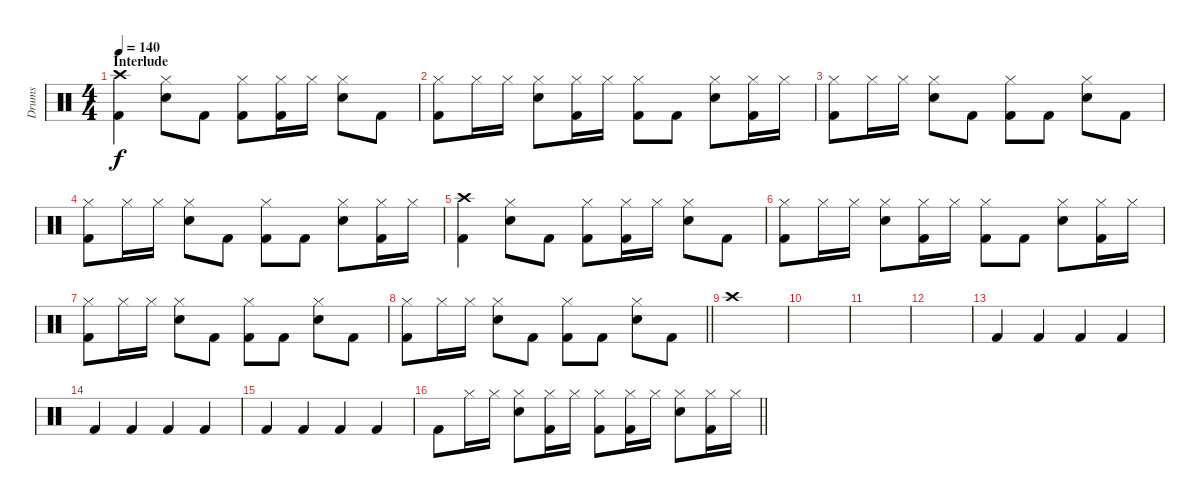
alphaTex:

\track ("Drums" "Drums") {instrument percussion}
\staff {score}
\articulation defaults
\ts (4 4)
\section ("" "Interlude")
\tempo 140
\clef neutral
\ks c
("Crash high (hit)" "Kick (hit) 2").4{dy f} ("Hi-Hat (closed)" "Electric Snare (hit)").8 "Kick (hit) 2".8 ("Hi-Hat (closed)" "Kick (hit) 2").8 ("Hi-Hat (closed)" "Kick (hit) 2").16 "Hi-Hat (closed)".16 ("Hi-Hat (closed)" "Electric Snare (hit)").8 "Kick (hit) 2".8 |
("Hi-Hat (closed)" "Kick (hit) 2").8 "Hi-Hat (closed)".16 "Hi-Hat (closed)".16 ("Hi-Hat (closed)" "Electric Snare (hit)").8 ("Hi-Hat (closed)" "Kick (hit) 2").16 "Hi-Hat (closed)".16 ("Hi-Hat (closed)" "Kick (hit) 2").8 "Kick (hit) 2".8 ("Hi-Hat (closed)" "Electric Snare (hit)").8 ("Hi-Hat (closed)" "Kick (hit) 2").16 "Hi-Hat (closed)".16 |
("Hi-Hat (closed)" "Kick (hit) 2").8 "Hi-Hat (closed)".16 "Hi-Hat (closed)".16 ("Hi-Hat (closed)" "Electric Snare (hit)").8 "Kick (hit) 2".8 ("Hi-Hat (closed)" "Kick (hit) 2").8 "Kick (hit) 2".8 ("Hi-Hat (closed)" "Electric Snare (hit)").8 "Kick (hit) 2".8 |
("Hi-Hat (closed)" "Kick (hit) 2").8 "Hi-Hat (closed)".16 "Hi-Hat (closed)".16 ("Hi-Hat (closed)" "Electric Snare (hit)").8 "Kick (hit) 2".8 ("Hi-Hat (closed)" "Kick (hit) 2").8 "Kick (hit) 2".8 ("Hi-Hat (closed)" "Electric Snare (hit)").8 ("Hi-Hat (closed)" "Kick (hit) 2").16 "Hi-Hat (closed)".16 |
("Crash high (hit)" "Kick (hit) 2").4 ("Hi-Hat (closed)" "Electric Snare (hit)").8 "Kick (hit) 2".8 ("Hi-Hat (closed)" "Kick (hit) 2").8 ("Hi-Hat (closed)" "Kick (hit) 2").16 "Hi-Hat (closed)".16 ("Hi-Hat (closed)" "Electric Snare (hit)").8 "Kick (hit) 2".8 |
("Hi-Hat (closed)" "Kick (hit) 2").8 "Hi-Hat (closed)".16 "Hi-Hat (closed)".16 ("Hi-Hat (closed)" "Electric Snare (hit)").8 ("Hi-Hat (closed)" "Kick (hit) 2").16 "Hi-Hat (closed)".16 ("Hi-Hat (closed)" "Kick (hit) 2").8 "Kick (hit) 2".8 ("Hi-Hat (closed)" "Electric Snare (hit)").8 ("Hi-Hat (closed)" "Kick (hit) 2").16 "Hi-Hat (closed)".16 |
("Hi-Hat (closed)" "Kick (hit) 2").8 "Hi-Hat (closed)".16 "Hi-Hat (closed)".16 ("Hi-Hat (closed)" "Electric Snare (hit)").8 "Kick (hit) 2".8 ("Hi-Hat (closed)" "Kick (hit) 2").8 "Kick (hit) 2".8 ("Hi-Hat (closed)" "Electric Snare (hit)").8 "Kick (hit) 2".8 |
\barLineRight lightlight
("Hi-Hat (closed)" "Kick (hit) 2").8 "Hi-Hat (closed)".16 "Hi-Hat (closed)".16 ("Hi-Hat (closed)" "Electric Snare (hit)").8 "Kick (hit) 2".8 ("Hi-Hat (closed)" "Kick (hit) 2").8 "Kick (hit) 2".8 ("Hi-Hat (closed)" "Electric Snare (hit)").8 "Kick (hit) 2".8 |
"Crash high (hit)".1 |
|
|
|
"Kick (hit) 2".4 "Kick (hit) 2".4 "Kick (hit) 2".4 "Kick (hit) 2".4 |
"Kick (hit) 2".4 "Kick (hit) 2".4 "Kick (hit) 2".4 "Kick (hit) 2".4 |
"Kick (hit) 2".4 "Kick (hit) 2".4 "Kick (hit) 2".4 "Kick (hit) 2".4 |
\barLineRight lightlight "Kick (hit) 2".8 "Hi-Hat (closed)".16 "Hi-Hat (closed)".16
("Hi-Hat (closed)" "Electric Snare (hit)").8 ("Hi-Hat (closed)" "Kick (hit) 2").16 "Hi-Hat (closed)".16 ("Hi-Hat (closed)" "Kick (hit) 2").8 ("Hi-Hat (closed)" "Kick (hit) 2").16 "Hi-Hat (closed)".16 ("Hi-Hat (closed)" "Electric Snare (hit)").8 ("Hi-Hat (closed)" "Kick (hit) 2").16 "Hi-Hat (closed)".16
